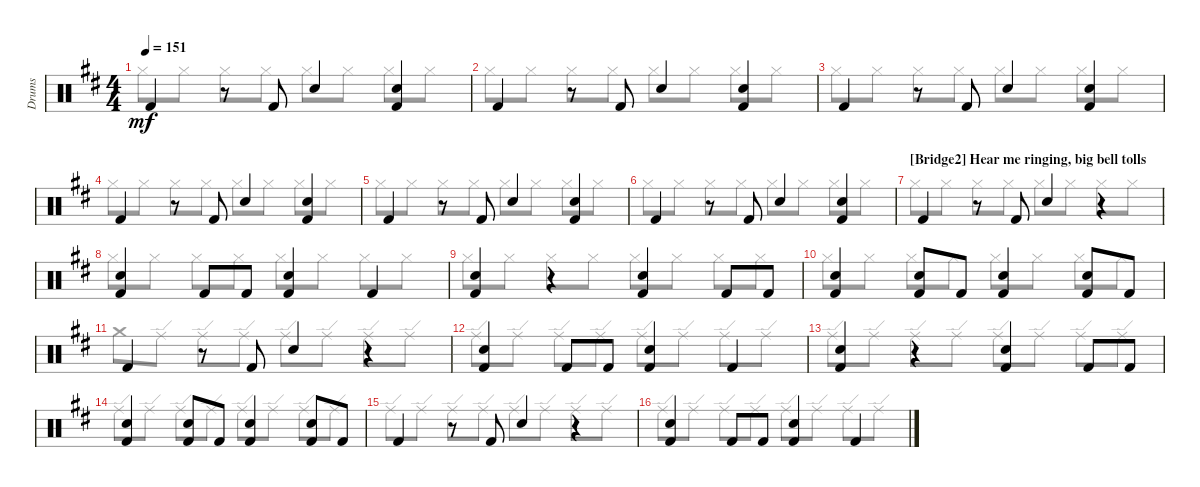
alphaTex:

\bracketExtendMode groupsimilarinstruments
\track ("Drumkit" "Drums") {instrument percussion}
\staff {score}
\articulation defaults
\voice
\ts (4 4)
\tempo 151
\clef neutral
\ks d "Kick (hit) 2"{acc forcenatural}.4{dy mf}
r.8 "Kick (hit) 2"{acc forcenatural}.8 "Snare (hit) 2"{acc forcenatural}.4 ("Kick (hit) 2"{acc forcenatural} "Snare (hit) 2"{acc forcenatural}).4 |
"Kick (hit) 2"{acc forcenatural}.4 r.8 "Kick (hit) 2"{acc forcenatural}.8 "Snare (hit) 2"{acc forcenatural}.4 ("Kick (hit) 2"{acc forcenatural} "Snare (hit) 2"{acc forcenatural}).4 |
"Kick (hit) 2"{acc forcenatural}.4 r.8 "Kick (hit) 2"{acc forcenatural}.8 "Snare (hit) 2"{acc forcenatural}.4 ("Kick (hit) 2"{acc forcenatural} "Snare (hit) 2"{acc forcenatural}).4 |
"Kick (hit) 2"{acc forcenatural}.4 r.8 "Kick (hit) 2"{acc forcenatural}.8 "Snare (hit) 2"{acc forcenatural}.4 ("Kick (hit) 2"{acc forcenatural} "Snare (hit) 2"{acc forcenatural}).4 |
"Kick (hit) 2"{acc forcenatural}.4 r.8 "Kick (hit) 2"{acc forcenatural}.8 "Snare (hit) 2"{acc forcenatural}.4 ("Kick (hit) 2"{acc forcenatural} "Snare (hit) 2"{acc forcenatural}).4 |
"Kick (hit) 2"{acc forcenatural}.4 r.8 "Kick (hit) 2"{acc forcenatural}.8 "Snare (hit) 2"{acc forcenatural}.4 ("Kick (hit) 2"{acc forcenatural} "Snare (hit) 2"{acc forcenatural}).4 |
\section ("" "[Bridge2] Hear me ringing, big bell tolls")
"Kick (hit) 2"{acc forcenatural}.4 r.8 "Kick (hit) 2"{acc forcenatural}.8 "Snare (hit) 2"{acc forcenatural}.4 r.4 |
("Kick (hit) 2"{acc forcenatural} "Snare (hit) 2"{acc forcenatural}).4 "Kick (hit) 2"{acc forcenatural}.8 "Kick (hit) 2"{acc forcenatural}.8 ("Kick (hit) 2"{acc forcenatural} "Snare (hit) 2"{acc forcenatural}).4 "Kick (hit) 2"{acc forcenatural}.4 |
("Kick (hit) 2"{acc forcenatural} "Snare (hit) 2"{acc forcenatural}).4 r.4 ("Kick (hit) 2"{acc forcenatural} "Snare (hit) 2"{acc forcenatural}).4 "Kick (hit) 2"{acc forcenatural}.8 "Kick (hit) 2"{acc forcenatural}.8 |
("Kick (hit) 2"{acc forcenatural} "Snare (hit) 2"{acc forcenatural}).4 ("Kick (hit) 2"{acc forcenatural} "Snare (hit) 2"{acc forcenatural}).8 "Kick (hit) 2"{acc forcenatural}.8 ("Kick (hit) 2"{acc forcenatural} "Snare (hit) 2"{acc forcenatural}).4 ("Kick (hit) 2"{acc forcenatural} "Snare (hit) 2"{acc forcenatural}).8 "Kick (hit) 2"{acc forcenatural}.8 |
"Kick (hit) 2"{acc forcenatural}.4 r.8 "Kick (hit) 2"{acc forcenatural}.8 "Snare (hit) 2"{acc forcenatural}.4 r.4 |
("Kick (hit) 2"{acc forcenatural} "Snare (hit) 2"{acc forcenatural}).4 "Kick (hit) 2"{acc forcenatural}.8 "Kick (hit) 2"{acc forcenatural}.8 ("Kick (hit) 2"{acc forcenatural} "Snare (hit) 2"{acc forcenatural}).4 "Kick (hit) 2"{acc forcenatural}.4 |
("Kick (hit) 2"{acc forcenatural} "Snare (hit) 2"{acc forcenatural}).4 r.4 ("Kick (hit) 2"{acc forcenatural} "Snare (hit) 2"{acc forcenatural}).4 "Kick (hit) 2"{acc forcenatural}.8 "Kick (hit) 2"{acc forcenatural}.8 |
("Kick (hit) 2"{acc forcenatural} "Snare (hit) 2"{acc forcenatural}).4 ("Kick (hit) 2"{acc forcenatural} "Snare (hit) 2"{acc forcenatural}).8 "Kick (hit) 2"{acc forcenatural}.8 ("Kick (hit) 2"{acc forcenatural} "Snare (hit) 2"{acc forcenatural}).4 ("Kick (hit) 2"{acc forcenatural} "Snare (hit) 2"{acc forcenatural}).8 "Kick (hit) 2"{acc forcenatural}.8 |
"Kick (hit) 2"{acc forcenatural}.4 r.8 "Kick (hit) 2"{acc forcenatural}.8 "Snare (hit) 2"{acc forcenatural}.4 r.4 |
("Kick (hit) 2"{acc forcenatural} "Snare (hit) 2"{acc forcenatural}).4 "Kick (hit) 2"{acc forcenatural}.8 "Kick (hit) 2"{acc forcenatural}.8 ("Kick (hit) 2"{acc forcenatural} "Snare (hit) 2"{acc forcenatural}).4 "Kick (hit) 2"{acc forcenatural}.4
\voice
\clef neutral
\ottava regular
\simile none
\ks d "Hi-Hat (closed)"{acc forcenatural}.8{dy mf} "Hi-Hat (closed)"{acc forcenatural}.8 "Hi-Hat (closed)"{acc forcenatural}.8 "Hi-Hat (closed)"{acc forcenatural}.8 "Hi-Hat (closed)"{acc forcenatural}.8 "Hi-Hat (closed)"{acc forcenatural}.8 "Hi-Hat (closed)"{acc forcenatural}.8 "Hi-Hat (closed)"{acc forcenatural}.8
|
"Hi-Hat (closed)"{acc forcenatural}.8 "Hi-Hat (closed)"{acc forcenatural}.8 "Hi-Hat (closed)"{acc forcenatural}.8 "Hi-Hat (closed)"{acc forcenatural}.8 "Hi-Hat (closed)"{acc forcenatural}.8 "Hi-Hat (closed)"{acc forcenatural}.8 "Hi-Hat (closed)"{acc forcenatural}.8 "Hi-Hat (closed)"{acc forcenatural}.8 |
"Hi-Hat (closed)"{acc forcenatural}.8 "Hi-Hat (closed)"{acc forcenatural}.8 "Hi-Hat (closed)"{acc forcenatural}.8 "Hi-Hat (closed)"{acc forcenatural}.8 "Hi-Hat (closed)"{acc forcenatural}.8 "Hi-Hat (closed)"{acc forcenatural}.8 "Hi-Hat (closed)"{acc forcenatural}.8 "Hi-Hat (closed)"{acc forcenatural}.8 |
"Hi-Hat (closed)"{acc forcenatural}.8 "Hi-Hat (closed)"{acc forcenatural}.8 "Hi-Hat (closed)"{acc forcenatural}.8 "Hi-Hat (closed)"{acc forcenatural}.8 "Hi-Hat (closed)"{acc forcenatural}.8 "Hi-Hat (closed)"{acc forcenatural}.8 "Hi-Hat (closed)"{acc forcenatural}.8 "Hi-Hat (closed)"{acc forcenatural}.8 |
"Hi-Hat (closed)"{acc forcenatural}.8 "Hi-Hat (closed)"{acc forcenatural}.8 "Hi-Hat (closed)"{acc forcenatural}.8 "Hi-Hat (closed)"{acc forcenatural}.8 "Hi-Hat (closed)"{acc forcenatural}.8 "Hi-Hat (closed)"{acc forcenatural}.8 "Hi-Hat (closed)"{acc forcenatural}.8 "Hi-Hat (closed)"{acc forcenatural}.8 |
"Hi-Hat (closed)"{acc forcenatural}.8 "Hi-Hat (closed)"{acc forcenatural}.8 "Hi-Hat (closed)"{acc forcenatural}.8 "Hi-Hat (closed)"{acc forcenatural}.8 "Hi-Hat (closed)"{acc forcenatural}.8 "Hi-Hat (closed)"{acc forcenatural}.8 "Hi-Hat (closed)"{acc forcenatural}.8 "Hi-Hat (closed)"{acc forcenatural}.8 |
"Hi-Hat (closed)"{acc forcenatural}.8 "Hi-Hat (closed)"{acc forcenatural}.8 "Hi-Hat (closed)"{acc forcenatural}.8 "Hi-Hat (closed)"{acc forcenatural}.8 "Hi-Hat (closed)"{acc forcenatural}.8 "Hi-Hat (closed)"{acc forcenatural}.8 "Hi-Hat (closed)"{acc forcenatural}.8 "Hi-Hat (closed)"{acc forcenatural}.8 |
"Hi-Hat (closed)"{acc forcenatural}.8 "Hi-Hat (closed)"{acc forcenatural}.8 "Hi-Hat (closed)"{acc forcenatural}.8 "Hi-Hat (closed)"{acc forcenatural}.8 "Hi-Hat (closed)"{acc forcenatural}.8 "Hi-Hat (closed)"{acc forcenatural}.8 "Hi-Hat (closed)"{acc forcenatural}.8 "Hi-Hat (closed)"{acc forcenatural}.8 |
"Hi-Hat (closed)"{acc forcenatural}.8 "Hi-Hat (closed)"{acc forcenatural}.8 "Hi-Hat (closed)"{acc forcenatural}.8 "Hi-Hat (closed)"{acc forcenatural}.8 "Hi-Hat (closed)"{acc forcenatural}.8 "Hi-Hat (closed)"{acc forcenatural}.8 "Hi-Hat (closed)"{acc forcenatural}.8 "Hi-Hat (closed)"{acc forcenatural}.8 |
"Hi-Hat (closed)"{acc forcenatural}.8 "Hi-Hat (closed)"{acc forcenatural}.8 "Hi-Hat (closed)"{acc forcenatural}.8 "Hi-Hat (closed)"{acc forcenatural}.8 "Hi-Hat (closed)"{acc forcenatural}.8 "Hi-Hat (closed)"{acc forcenatural}.8 "Hi-Hat (closed)"{acc forcenatural}.8 "Hi-Hat (closed)"{acc forcenatural}.8 |
"Crash medium (hit)"{acc forcenatural}.8 "Ride (edge)"{acc forcenatural}.8 "Ride (edge)"{acc forcenatural}.8 "Ride (edge)"{acc forcenatural}.8 "Ride (edge)"{acc forcenatural}.8 "Ride (edge)"{acc forcenatural}.8 "Ride (edge)"{acc forcenatural}.8 "Ride (edge)"{acc forcenatural}.8 |
"Ride (edge)"{acc forcenatural}.8 "Ride (edge)"{acc forcenatural}.8 "Ride (edge)"{acc forcenatural}.8 "Ride (edge)"{acc forcenatural}.8 "Ride (edge)"{acc forcenatural}.8 "Ride (edge)"{acc forcenatural}.8 "Ride (edge)"{acc forcenatural}.8 "Ride (edge)"{acc forcenatural}.8 |
"Ride (edge)"{acc forcenatural}.8 "Ride (edge)"{acc forcenatural}.8 "Ride (edge)"{acc forcenatural}.8 "Ride (edge)"{acc forcenatural}.8 "Ride (edge)"{acc forcenatural}.8 "Ride (edge)"{acc forcenatural}.8 "Ride (edge)"{acc forcenatural}.8 "Ride (edge)"{acc forcenatural}.8 |
"Ride (edge)"{acc forcenatural}.8 "Ride (edge)"{acc forcenatural}.8 "Ride (edge)"{acc forcenatural}.8 "Ride (edge)"{acc forcenatural}.8 "Ride (edge)"{acc forcenatural}.8 "Ride (edge)"{acc forcenatural}.8 "Ride (edge)"{acc forcenatural}.8 "Ride (edge)"{acc forcenatural}.8 |
"Ride (edge)"{acc forcenatural}.8 "Ride (edge)"{acc forcenatural}.8 "Ride (edge)"{acc forcenatural}.8 "Ride (edge)"{acc forcenatural}.8 "Ride (edge)"{acc forcenatural}.8 "Ride (edge)"{acc forcenatural}.8 "Ride (edge)"{acc forcenatural}.8 "Ride (edge)"{acc forcenatural}.8 |
"Ride (edge)"{acc forcenatural}.8 "Ride (edge)"{acc forcenatural}.8 "Ride (edge)"{acc forcenatural}.8 "Ride (edge)"{acc forcenatural}.8 "Ride (edge)"{acc forcenatural}.8 "Ride (edge)"{acc forcenatural}.8 "Ride (edge)"{acc forcenatural}.8 "Ride (edge)"{acc forcenatural}.8
